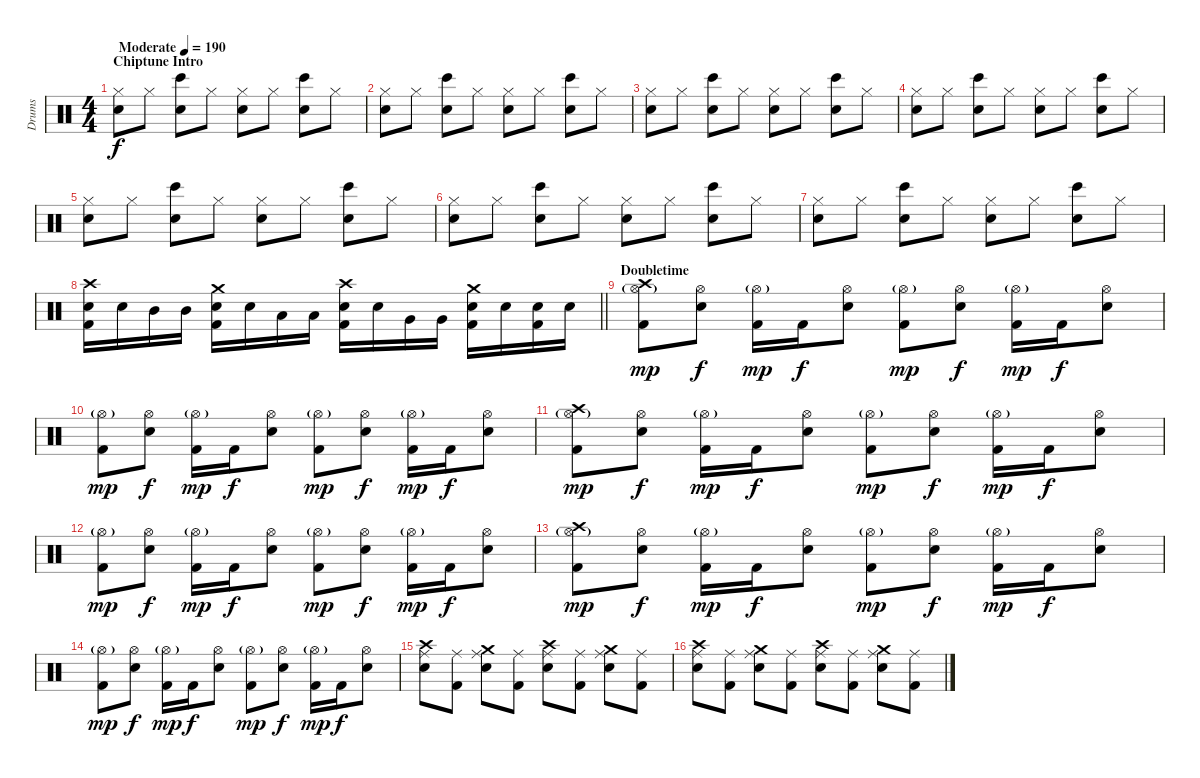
\track ("Drums" "Drums") {instrument percussion}
\staff {score}
\articulation defaults
\ts (4 4)
\section ("" "Chiptune Intro")
\tempo (190 "Moderate")
\clef neutral
\ks c
("Metronome (bell)" "Hi-Hat (closed)").8{dy f} "Hi-Hat (closed)".8 ("Metronome (bell)" "Bongo High (hit)").8 "Hi-Hat (closed)".8 ("Metronome (bell)" "Hi-Hat (closed)").8 "Hi-Hat (closed)".8 ("Metronome (bell)" "Bongo High (hit)").8 "Hi-Hat (closed)".8 |
("Metronome (bell)" "Hi-Hat (closed)").8 "Hi-Hat (closed)".8 ("Metronome (bell)" "Bongo High (hit)").8 "Hi-Hat (closed)".8 ("Metronome (bell)" "Hi-Hat (closed)").8 "Hi-Hat (closed)".8 ("Metronome (bell)" "Bongo High (hit)").8 "Hi-Hat (closed)".8 |
("Metronome (bell)" "Hi-Hat (closed)").8 "Hi-Hat (closed)".8 ("Metronome (bell)" "Bongo High (hit)").8 "Hi-Hat (closed)".8 ("Metronome (bell)" "Hi-Hat (closed)").8 "Hi-Hat (closed)".8 ("Metronome (bell)" "Bongo High (hit)").8 "Hi-Hat (closed)".8 |
("Metronome (bell)" "Hi-Hat (closed)").8 "Hi-Hat (closed)".8 ("Metronome (bell)" "Bongo High (hit)").8 "Hi-Hat (closed)".8 ("Metronome (bell)" "Hi-Hat (closed)").8 "Hi-Hat (closed)".8 ("Metronome (bell)" "Bongo High (hit)").8 "Hi-Hat (closed)".8 |
("Metronome (bell)" "Hi-Hat (closed)").8 "Hi-Hat (closed)".8 ("Metronome (bell)" "Bongo High (hit)").8 "Hi-Hat (closed)".8 ("Metronome (bell)" "Hi-Hat (closed)").8 "Hi-Hat (closed)".8 ("Metronome (bell)" "Bongo High (hit)").8 "Hi-Hat (closed)".8 |
("Metronome (bell)" "Hi-Hat (closed)").8 "Hi-Hat (closed)".8 ("Metronome (bell)" "Bongo High (hit)").8 "Hi-Hat (closed)".8 ("Metronome (bell)" "Hi-Hat (closed)").8 "Hi-Hat (closed)".8 ("Metronome (bell)" "Bongo High (hit)").8 "Hi-Hat (closed)".8 |
("Metronome (bell)" "Hi-Hat (closed)").8 "Hi-Hat (closed)".8 ("Metronome (bell)" "Bongo High (hit)").8 "Hi-Hat (closed)".8 ("Metronome (bell)" "Hi-Hat (closed)").8 "Hi-Hat (closed)".8 ("Metronome (bell)" "Bongo High (hit)").8 "Hi-Hat (closed)".8 |
\barLineRight lightlight
("Crash high (hit)" "Snare (hit) 2" "Kick (hit) 2").16 "Snare (hit) 2".16 "Mid Tom (hit)".16 "Mid Tom (hit)".16 ("Crash medium (hit)" "Snare (hit) 2" "Kick (hit) 2").16 "Snare (hit) 2".16 "Low Tom (hit)".16 "Low Tom (hit)".16 ("Crash high (hit)" "Snare (hit) 2" "Kick (hit) 2").16 "Snare (hit) 2".16 "Very Low Tom (hit)".16 "Very Low Tom (hit)".16 ("Crash medium (hit)" "Snare (hit) 2" "Kick (hit) 2").16 "Snare (hit) 2".16 ("Snare (hit) 2" "Kick (hit) 2").16 "Snare (hit) 2".16 |
\section ("" "Doubletime")
("Crash high (hit)" "Hi-Hat (open)"{g} "Kick (hit) 2").8{dy mp} ("Hi-Hat (open)" "Snare (hit) 2").8{dy f} ("Hi-Hat (open)"{g} "Kick (hit) 2").16{dy mp} "Kick (hit) 2".16{dy f} ("Hi-Hat (open)" "Snare (hit) 2").8 ("Hi-Hat (open)"{g} "Kick (hit) 2").8{dy mp} ("Hi-Hat (open)" "Snare (hit) 2").8{dy f} ("Hi-Hat (open)"{g} "Kick (hit) 2").16{dy mp} "Kick (hit) 2".16{dy f} ("Hi-Hat (open)" "Snare (hit) 2").8 |
("Hi-Hat (open)"{g} "Kick (hit) 2").8{dy mp} ("Hi-Hat (open)" "Snare (hit) 2").8{dy f} ("Hi-Hat (open)"{g} "Kick (hit) 2").16{dy mp} "Kick (hit) 2".16{dy f} ("Hi-Hat (open)" "Snare (hit) 2").8 ("Hi-Hat (open)"{g} "Kick (hit) 2").8{dy mp} ("Hi-Hat (open)" "Snare (hit) 2").8{dy f} ("Hi-Hat (open)"{g} "Kick (hit) 2").16{dy mp} "Kick (hit) 2".16{dy f} ("Hi-Hat (open)" "Snare (hit) 2").8 |
("Crash high (hit)" "Hi-Hat (open)"{g} "Kick (hit) 2").8{dy mp} ("Hi-Hat (open)" "Snare (hit) 2").8{dy f} ("Hi-Hat (open)"{g} "Kick (hit) 2").16{dy mp} "Kick (hit) 2".16{dy f} ("Hi-Hat (open)" "Snare (hit) 2").8 ("Hi-Hat (open)"{g} "Kick (hit) 2").8{dy mp} ("Hi-Hat (open)" "Snare (hit) 2").8{dy f} ("Hi-Hat (open)"{g} "Kick (hit) 2").16{dy mp} "Kick (hit) 2".16{dy f} ("Hi-Hat (open)" "Snare (hit) 2").8 |
("Hi-Hat (open)"{g} "Kick (hit) 2").8{dy mp} ("Hi-Hat (open)" "Snare (hit) 2").8{dy f} ("Hi-Hat (open)"{g} "Kick (hit) 2").16{dy mp} "Kick (hit) 2".16{dy f} ("Hi-Hat (open)" "Snare (hit) 2").8 ("Hi-Hat (open)"{g} "Kick (hit) 2").8{dy mp} ("Hi-Hat (open)" "Snare (hit) 2").8{dy f} ("Hi-Hat (open)"{g} "Kick (hit) 2").16{dy mp} "Kick (hit) 2".16{dy f} ("Hi-Hat (open)" "Snare (hit) 2").8 |
("Crash high (hit)" "Hi-Hat (open)"{g} "Kick (hit) 2").8{dy mp} ("Hi-Hat (open)" "Snare (hit) 2").8{dy f} ("Hi-Hat (open)"{g} "Kick (hit) 2").16{dy mp} "Kick (hit) 2".16{dy f} ("Hi-Hat (open)" "Snare (hit) 2").8 ("Hi-Hat (open)"{g} "Kick (hit) 2").8{dy mp} ("Hi-Hat (open)" "Snare (hit) 2").8{dy f} ("Hi-Hat (open)"{g} "Kick (hit) 2").16{dy mp} "Kick (hit) 2".16{dy f} ("Hi-Hat (open)" "Snare (hit) 2").8 |
("Hi-Hat (open)"{g} "Kick (hit) 2").8{dy mp} ("Hi-Hat (open)" "Snare (hit) 2").8{dy f} ("Hi-Hat (open)"{g} "Kick (hit) 2").16{dy mp} "Kick (hit) 2".16{dy f} ("Hi-Hat (open)" "Snare (hit) 2").8 ("Hi-Hat (open)"{g} "Kick (hit) 2").8{dy mp} ("Hi-Hat (open)" "Snare (hit) 2").8{dy f} ("Hi-Hat (open)"{g} "Kick (hit) 2").16{dy mp} "Kick (hit) 2".16{dy f} ("Hi-Hat (open)" "Snare (hit) 2").8 |
("Crash high (hit)" "Ride (middle)" "Snare (hit) 2").8 ("Ride (middle)" "Kick (hit) 2").8 ("Crash medium (hit)" "Ride (middle)" "Snare (hit) 2").8 ("Ride (middle)" "Kick (hit) 2").8 ("Crash high (hit)" "Ride (middle)" "Snare (hit) 2").8 ("Ride (middle)" "Kick (hit) 2").8 ("Crash medium (hit)" "Ride (middle)" "Snare (hit) 2").8 ("Ride (middle)" "Kick (hit) 2").8 |
("Crash high (hit)" "Ride (middle)" "Snare (hit) 2").8 ("Ride (middle)" "Kick (hit) 2").8 ("Crash medium (hit)" "Ride (middle)" "Snare (hit) 2").8 ("Ride (middle)" "Kick (hit) 2").8 ("Crash high (hit)" "Ride (middle)" "Snare (hit) 2").8 ("Ride (middle)" "Kick (hit) 2").8 ("Crash medium (hit)" "Ride (middle)" "Snare (hit) 2").8 ("Ride (middle)" "Kick (hit) 2").8
